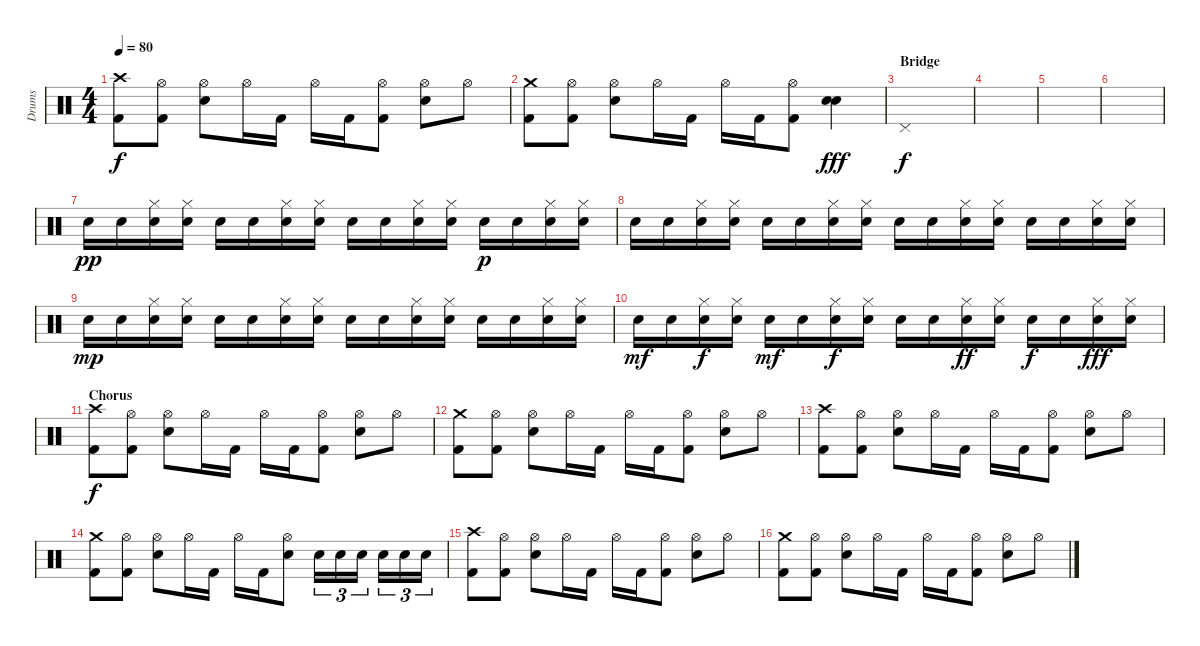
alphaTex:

\track ("Drums" "Drums") {instrument percussion}
\staff {score}
\articulation defaults
\ts (4 4)
\tempo 80
\clef neutral
\ks c
("Crash high (hit)" "Kick (hit) 2").8{dy f} ("Hi-Hat (open)" "Kick (hit) 2").8 ("Hi-Hat (open)" "Electric Snare (hit)").8 "Hi-Hat (open)".16 "Kick (hit) 2".16 "Hi-Hat (open)".16 "Kick (hit) 2".16 ("Hi-Hat (open)" "Kick (hit) 2").8 ("Hi-Hat (open)" "Electric Snare (hit)").8 "Hi-Hat (open)".8 |
("Crash medium (hit)" "Kick (hit) 2").8 ("Hi-Hat (open)" "Kick (hit) 2").8 ("Hi-Hat (open)" "Electric Snare (hit)").8 "Hi-Hat (open)".16 "Kick (hit) 2".16 "Hi-Hat (open)".16 "Kick (hit) 2".16 ("Hi-Hat (open)" "Kick (hit) 2").8 ("Electric Snare (hit)" "Electric Snare (hit)").4{dy fff} |
\section ("" "Bridge")
"Pedal Hi-Hat (hit)".1{dy f} |
|
|
|
"Electric Snare (hit)".16{dy pp} "Electric Snare (hit)".16 ("Hi-Hat (closed)" "Electric Snare (hit)").16 ("Hi-Hat (closed)" "Electric Snare (hit)").16 "Electric Snare (hit)".16 "Electric Snare (hit)".16 ("Hi-Hat (closed)" "Electric Snare (hit)").16 ("Hi-Hat (closed)" "Electric Snare (hit)").16 "Electric Snare (hit)".16 "Electric Snare (hit)".16 ("Hi-Hat (closed)" "Electric Snare (hit)").16 ("Hi-Hat (closed)" "Electric Snare (hit)").16 "Electric Snare (hit)".16{dy p} "Electric Snare (hit)".16 ("Hi-Hat (closed)" "Electric Snare (hit)").16 ("Hi-Hat (closed)" "Electric Snare (hit)").16 |
"Electric Snare (hit)".16 "Electric Snare (hit)".16 ("Hi-Hat (closed)" "Electric Snare (hit)").16 ("Hi-Hat (closed)" "Electric Snare (hit)").16 "Electric Snare (hit)".16 "Electric Snare (hit)".16 ("Hi-Hat (closed)" "Electric Snare (hit)").16 ("Hi-Hat (closed)" "Electric Snare (hit)").16 "Electric Snare (hit)".16 "Electric Snare (hit)".16 ("Hi-Hat (closed)" "Electric Snare (hit)").16 ("Hi-Hat (closed)" "Electric Snare (hit)").16 "Electric Snare (hit)".16 "Electric Snare (hit)".16 ("Hi-Hat (closed)" "Electric Snare (hit)").16 ("Hi-Hat (closed)" "Electric Snare (hit)").16 |
"Electric Snare (hit)".16{dy mp} "Electric Snare (hit)".16 ("Hi-Hat (closed)" "Electric Snare (hit)").16 ("Hi-Hat (closed)" "Electric Snare (hit)").16 "Electric Snare (hit)".16 "Electric Snare (hit)".16 ("Hi-Hat (closed)" "Electric Snare (hit)").16 ("Hi-Hat (closed)" "Electric Snare (hit)").16 "Electric Snare (hit)".16 "Electric Snare (hit)".16 ("Hi-Hat (closed)" "Electric Snare (hit)").16 ("Hi-Hat (closed)" "Electric Snare (hit)").16 "Electric Snare (hit)".16 "Electric Snare (hit)".16 ("Hi-Hat (closed)" "Electric Snare (hit)").16 ("Hi-Hat (closed)" "Electric Snare (hit)").16 |
"Electric Snare (hit)".16{dy mf} "Electric Snare (hit)".16 ("Hi-Hat (closed)" "Electric Snare (hit)").16{dy f} ("Hi-Hat (closed)" "Electric Snare (hit)").16 "Electric Snare (hit)".16{dy mf} "Electric Snare (hit)".16 ("Hi-Hat (closed)" "Electric Snare (hit)").16{dy f} ("Hi-Hat (closed)" "Electric Snare (hit)").16 "Electric Snare (hit)".16 "Electric Snare (hit)".16 ("Hi-Hat (closed)" "Electric Snare (hit)").16{dy ff} ("Hi-Hat (closed)" "Electric Snare (hit)").16 "Electric Snare (hit)".16{dy f} "Electric Snare (hit)".16 ("Hi-Hat (closed)" "Electric Snare (hit)").16{dy fff} ("Hi-Hat (closed)" "Electric Snare (hit)").16 |
\section ("" "Chorus")
("Crash high (hit)" "Kick (hit) 2").8{dy f} ("Hi-Hat (open)" "Kick (hit) 2").8 ("Hi-Hat (open)" "Electric Snare (hit)").8 "Hi-Hat (open)".16 "Kick (hit) 2".16 "Hi-Hat (open)".16 "Kick (hit) 2".16 ("Hi-Hat (open)" "Kick (hit) 2").8 ("Hi-Hat (open)" "Electric Snare (hit)").8 "Hi-Hat (open)".8 |
("Crash medium (hit)" "Kick (hit) 2").8 ("Hi-Hat (open)" "Kick (hit) 2").8 ("Hi-Hat (open)" "Electric Snare (hit)").8 "Hi-Hat (open)".16 "Kick (hit) 2".16 "Hi-Hat (open)".16 "Kick (hit) 2".16 ("Hi-Hat (open)" "Kick (hit) 2").8 ("Hi-Hat (open)" "Electric Snare (hit)").8 "Hi-Hat (open)".8 |
("Crash high (hit)" "Kick (hit) 2").8 ("Hi-Hat (open)" "Kick (hit) 2").8 ("Hi-Hat (open)" "Electric Snare (hit)").8 "Hi-Hat (open)".16 "Kick (hit) 2".16 "Hi-Hat (open)".16 "Kick (hit) 2".16 ("Hi-Hat (open)" "Kick (hit) 2").8 ("Hi-Hat (open)" "Electric Snare (hit)").8 "Hi-Hat (open)".8 |
("Crash medium (hit)" "Kick (hit) 2").8 ("Hi-Hat (open)" "Kick (hit) 2").8 ("Hi-Hat (open)" "Electric Snare (hit)").8 "Hi-Hat (open)".16 "Kick (hit) 2".16 "Hi-Hat (open)".16 "Kick (hit) 2".16 ("Hi-Hat (open)" "Electric Snare (hit)").8 "Electric Snare (hit)".16{tu (3 2)} "Electric Snare (hit)".16{tu (3 2)} "Electric Snare (hit)".16{tu (3 2)} "Electric Snare (hit)".16{tu (3 2)} "Electric Snare (hit)".16{tu (3 2)} "Electric Snare (hit)".16{tu (3 2)} |
("Crash high (hit)" "Kick (hit) 2").8 ("Hi-Hat (open)" "Kick (hit) 2").8 ("Hi-Hat (open)" "Electric Snare (hit)").8 "Hi-Hat (open)".16 "Kick (hit) 2".16 "Hi-Hat (open)".16 "Kick (hit) 2".16 ("Hi-Hat (open)" "Kick (hit) 2").8 ("Hi-Hat (open)" "Electric Snare (hit)").8 "Hi-Hat (open)".8 |
("Crash medium (hit)" "Kick (hit) 2").8 ("Hi-Hat (open)" "Kick (hit) 2").8 ("Hi-Hat (open)" "Electric Snare (hit)").8 "Hi-Hat (open)".16 "Kick (hit) 2".16 "Hi-Hat (open)".16 "Kick (hit) 2".16 ("Hi-Hat (open)" "Kick (hit) 2").8 ("Hi-Hat (open)" "Electric Snare (hit)").8 "Hi-Hat (open)".8
